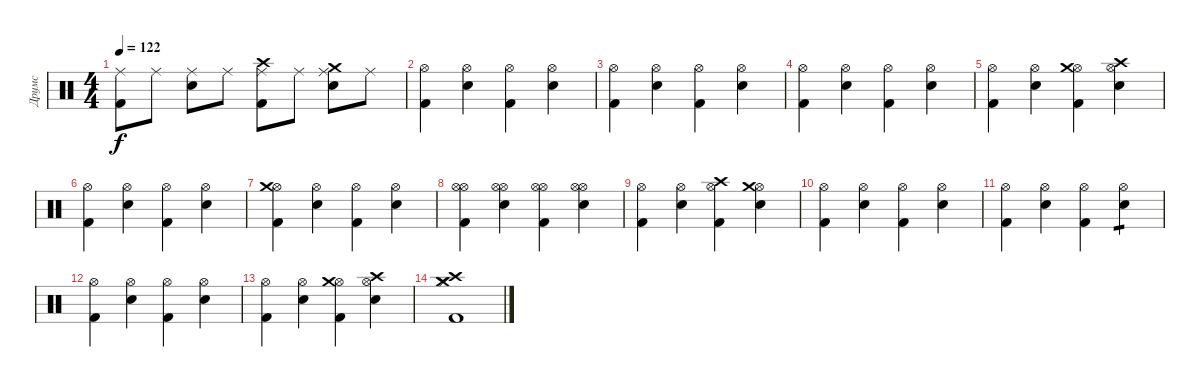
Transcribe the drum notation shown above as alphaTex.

\track ("Друмс" "Друмс") {instrument percussion}
\staff {score}
\articulation defaults
\ts (4 4)
\tempo 122
\clef neutral
\ks c
("Ride (middle)" "Kick (hit) 2").8{dy f} "Ride (middle)".8 ("Ride (middle)" "Snare (hit) 2").8 "Ride (middle)".8 ("Ride (middle)" "Kick (hit) 2" "Crash high (hit)").8 "Ride (middle)".8 ("Ride (middle)" "Snare (hit) 2" "Crash medium (hit)").8 "Ride (middle)".8 |
("Hi-Hat (open)" "Kick (hit) 2").4 ("Hi-Hat (open)" "Snare (hit) 2").4 ("Hi-Hat (open)" "Kick (hit) 2").4 ("Hi-Hat (open)" "Snare (hit) 2").4 |
("Hi-Hat (open)" "Kick (hit) 2").4 ("Hi-Hat (open)" "Snare (hit) 2").4 ("Hi-Hat (open)" "Kick (hit) 2").4 ("Hi-Hat (open)" "Snare (hit) 2").4 |
("Hi-Hat (open)" "Kick (hit) 2").4 ("Hi-Hat (open)" "Snare (hit) 2").4 ("Hi-Hat (open)" "Kick (hit) 2").4 ("Hi-Hat (open)" "Snare (hit) 2").4 |
("Hi-Hat (open)" "Kick (hit) 2").4 ("Hi-Hat (open)" "Snare (hit) 2").4 ("Hi-Hat (open)" "Kick (hit) 2" "Crash medium (hit)").4 ("Hi-Hat (open)" "Snare (hit) 2" "Crash high (hit)").4 |
("Hi-Hat (open)" "Kick (hit) 2").4 ("Hi-Hat (open)" "Snare (hit) 2").4 ("Hi-Hat (open)" "Kick (hit) 2").4 ("Hi-Hat (open)" "Snare (hit) 2").4 |
("Hi-Hat (open)" "Kick (hit) 2" "Crash medium (hit)").4 ("Hi-Hat (open)" "Snare (hit) 2").4 ("Hi-Hat (open)" "Kick (hit) 2").4 ("Hi-Hat (open)" "Snare (hit) 2").4 |
("Hi-Hat (open)" "Kick (hit) 2" "Hi-Hat (open)").4 ("Hi-Hat (open)" "Snare (hit) 2" "Hi-Hat (open)").4 ("Hi-Hat (open)" "Kick (hit) 2" "Hi-Hat (open)").4 ("Hi-Hat (open)" "Snare (hit) 2" "Hi-Hat (open)").4 |
("Hi-Hat (open)" "Kick (hit) 2").4 ("Hi-Hat (open)" "Snare (hit) 2").4 ("Hi-Hat (open)" "Kick (hit) 2" "Crash high (hit)").4 ("Hi-Hat (open)" "Snare (hit) 2" "Crash medium (hit)").4 |
("Hi-Hat (open)" "Kick (hit) 2").4 ("Hi-Hat (open)" "Snare (hit) 2").4 ("Hi-Hat (open)" "Kick (hit) 2").4 ("Hi-Hat (open)" "Snare (hit) 2").4 |
("Hi-Hat (open)" "Kick (hit) 2").4 ("Hi-Hat (open)" "Snare (hit) 2").4 ("Hi-Hat (open)" "Kick (hit) 2").4 ("Hi-Hat (open)" "Snare (hit) 2").4{tp 1} |
("Hi-Hat (open)" "Kick (hit) 2").4 ("Hi-Hat (open)" "Snare (hit) 2").4 ("Hi-Hat (open)" "Kick (hit) 2").4 ("Hi-Hat (open)" "Snare (hit) 2").4 |
("Hi-Hat (open)" "Kick (hit) 2").4 ("Hi-Hat (open)" "Snare (hit) 2").4 ("Hi-Hat (open)" "Kick (hit) 2" "Crash medium (hit)").4 ("Hi-Hat (open)" "Snare (hit) 2" "Crash high (hit)").4 |
("Crash high (hit)" "Crash medium (hit)" "Kick (hit) 2" "Hi-Hat (closed)").1
